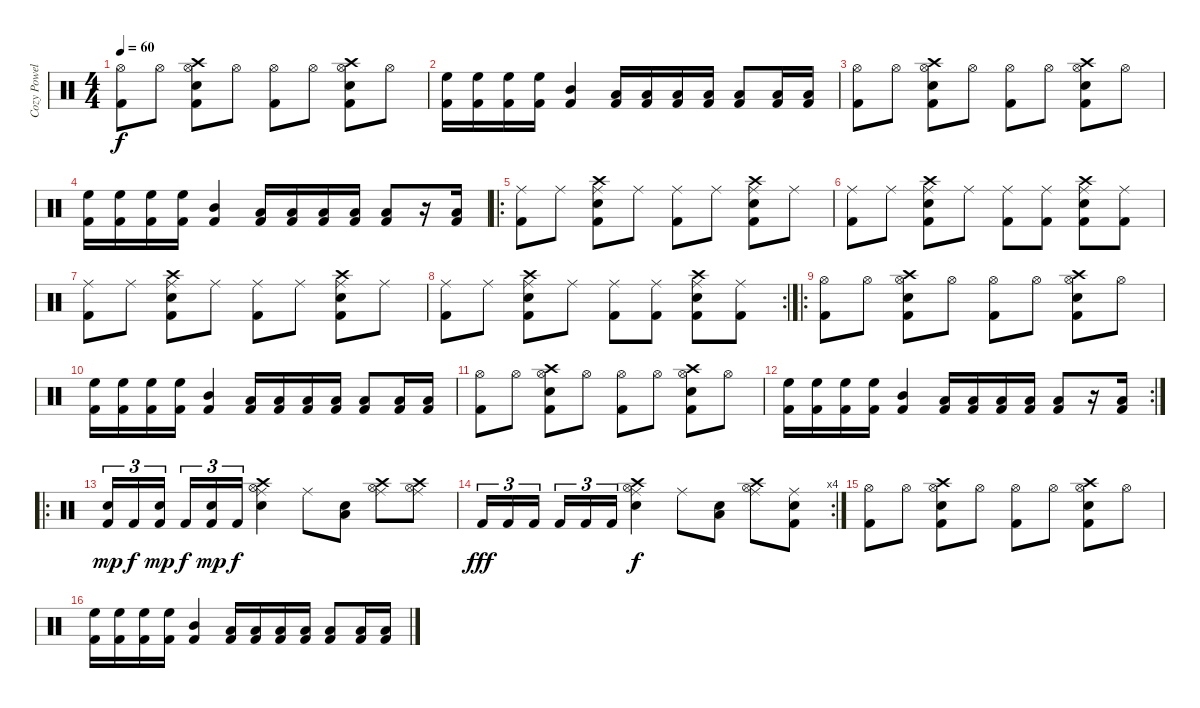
\track ("Cozy Powell (Drums)" "Cozy Powel") {instrument percussion}
\staff {score}
\articulation defaults
\ts (4 4)
\tempo 60
\clef neutral
\ks c
("Hi-Hat (open)" "Kick (hit) 2").8{dy f} "Hi-Hat (open)".8 ("Crash high (hit)" "Hi-Hat (open)" "Snare (hit) 2" "Kick (hit) 2").8 "Hi-Hat (open)".8 ("Hi-Hat (open)" "Kick (hit) 2").8 "Hi-Hat (open)".8 ("Crash high (hit)" "Hi-Hat (open)" "Snare (hit) 2" "Kick (hit) 2").8 "Hi-Hat (open)".8 |
("Kick (hit) 2" "High Floor Tom (hit)").16 ("Kick (hit) 2" "High Floor Tom (hit)").16 ("Kick (hit) 2" "High Floor Tom (hit)").16 ("Kick (hit) 2" "High Floor Tom (hit)").16 ("Kick (hit) 2" "Mid Tom (hit)").4 ("Kick (hit) 2" "Low Tom (hit)").16 ("Kick (hit) 2" "Low Tom (hit)").16 ("Kick (hit) 2" "Low Tom (hit)").16 ("Kick (hit) 2" "Low Tom (hit)").16 ("Kick (hit) 2" "Low Floor Tom (hit)").8 ("Kick (hit) 2" "Low Tom (hit)").16 ("Kick (hit) 2" "Low Tom (hit)").16 |
("Hi-Hat (open)" "Kick (hit) 2").8 "Hi-Hat (open)".8 ("Crash high (hit)" "Hi-Hat (open)" "Snare (hit) 2" "Kick (hit) 2").8 "Hi-Hat (open)".8 ("Hi-Hat (open)" "Kick (hit) 2").8 "Hi-Hat (open)".8 ("Crash high (hit)" "Hi-Hat (open)" "Snare (hit) 2" "Kick (hit) 2").8 "Hi-Hat (open)".8 |
("Kick (hit) 2" "High Floor Tom (hit)").16 ("Kick (hit) 2" "High Floor Tom (hit)").16 ("Kick (hit) 2" "High Floor Tom (hit)").16 ("Kick (hit) 2" "High Floor Tom (hit)").16 ("Kick (hit) 2" "Mid Tom (hit)").4 ("Kick (hit) 2" "Low Tom (hit)").16 ("Kick (hit) 2" "Low Tom (hit)").16 ("Kick (hit) 2" "Low Tom (hit)").16 ("Kick (hit) 2" "Low Tom (hit)").16 ("Kick (hit) 2" "Low Floor Tom (hit)").8 r.16 ("Kick (hit) 2" "Low Tom (hit)").16 |
\ro
("Ride (middle)" "Kick (hit) 2").8 "Ride (middle)".8 ("Crash high (hit)" "Ride (middle)" "Snare (hit) 2" "Kick (hit) 2").8 "Ride (middle)".8 ("Ride (middle)" "Kick (hit) 2").8 "Ride (middle)".8 ("Crash high (hit)" "Ride (middle)" "Snare (hit) 2" "Kick (hit) 2").8 "Ride (middle)".8 |
("Ride (middle)" "Kick (hit) 2").8 "Ride (middle)".8 ("Crash high (hit)" "Ride (middle)" "Snare (hit) 2" "Kick (hit) 2").8 "Ride (middle)".8 ("Ride (middle)" "Kick (hit) 2").8 ("Ride (middle)" "Kick (hit) 2").8 ("Crash high (hit)" "Ride (middle)" "Snare (hit) 2" "Kick (hit) 2").8 ("Ride (middle)" "Kick (hit) 2").8 |
("Ride (middle)" "Kick (hit) 2").8 "Ride (middle)".8 ("Crash high (hit)" "Ride (middle)" "Snare (hit) 2" "Kick (hit) 2").8 "Ride (middle)".8 ("Ride (middle)" "Kick (hit) 2").8 "Ride (middle)".8 ("Crash high (hit)" "Ride (middle)" "Snare (hit) 2" "Kick (hit) 2").8 "Ride (middle)".8 |
\rc 2
("Ride (middle)" "Kick (hit) 2").8 "Ride (middle)".8 ("Crash high (hit)" "Ride (middle)" "Snare (hit) 2" "Kick (hit) 2").8 "Ride (middle)".8 ("Ride (middle)" "Kick (hit) 2").8 ("Ride (middle)" "Kick (hit) 2").8 ("Crash high (hit)" "Ride (middle)" "Snare (hit) 2" "Kick (hit) 2").8 ("Ride (middle)" "Kick (hit) 2").8 |
\ro
("Hi-Hat (open)" "Kick (hit) 2").8 "Hi-Hat (open)".8 ("Crash high (hit)" "Hi-Hat (open)" "Snare (hit) 2" "Kick (hit) 2").8 "Hi-Hat (open)".8 ("Hi-Hat (open)" "Kick (hit) 2").8 "Hi-Hat (open)".8 ("Crash high (hit)" "Hi-Hat (open)" "Snare (hit) 2" "Kick (hit) 2").8 "Hi-Hat (open)".8 |
("Kick (hit) 2" "High Floor Tom (hit)").16 ("Kick (hit) 2" "High Floor Tom (hit)").16 ("Kick (hit) 2" "High Floor Tom (hit)").16 ("Kick (hit) 2" "High Floor Tom (hit)").16 ("Kick (hit) 2" "Mid Tom (hit)").4 ("Kick (hit) 2" "Low Tom (hit)").16 ("Kick (hit) 2" "Low Tom (hit)").16 ("Kick (hit) 2" "Low Tom (hit)").16 ("Kick (hit) 2" "Low Tom (hit)").16 ("Kick (hit) 2" "Low Floor Tom (hit)").8 ("Kick (hit) 2" "Low Tom (hit)").16 ("Kick (hit) 2" "Low Tom (hit)").16 |
("Hi-Hat (open)" "Kick (hit) 2").8 "Hi-Hat (open)".8 ("Crash high (hit)" "Hi-Hat (open)" "Snare (hit) 2" "Kick (hit) 2").8 "Hi-Hat (open)".8 ("Hi-Hat (open)" "Kick (hit) 2").8 "Hi-Hat (open)".8 ("Crash high (hit)" "Hi-Hat (open)" "Snare (hit) 2" "Kick (hit) 2").8 "Hi-Hat (open)".8 |
\rc 2
("Kick (hit) 2" "High Floor Tom (hit)").16 ("Kick (hit) 2" "High Floor Tom (hit)").16 ("Kick (hit) 2" "High Floor Tom (hit)").16 ("Kick (hit) 2" "High Floor Tom (hit)").16 ("Kick (hit) 2" "Mid Tom (hit)").4 ("Kick (hit) 2" "Low Tom (hit)").16 ("Kick (hit) 2" "Low Tom (hit)").16 ("Kick (hit) 2" "Low Tom (hit)").16 ("Kick (hit) 2" "Low Tom (hit)").16 ("Kick (hit) 2" "Low Floor Tom (hit)").8 r.16 ("Kick (hit) 2" "Low Tom (hit)").16 |
\ro
("Kick (hit) 2" "Snare (hit) 2").16{tu (3 2) dy mp} "Kick (hit) 2".16{tu (3 2) dy f} ("Kick (hit) 2" "Snare (hit) 2").16{tu (3 2) dy mp beam splitsecondary} "Kick (hit) 2".16{tu (3 2) dy f} ("Kick (hit) 2" "Snare (hit) 2").16{tu (3 2) dy mp} "Kick (hit) 2".16{tu (3 2) dy f} ("Hi-Hat (open)" "Snare (hit) 2" "Crash high (hit)" "Ride (middle)").4 "Ride (middle)".8 ("Snare (hit) 2" "Low Tom (hit)").8 ("Crash high (hit)" "Hi-Hat (open)" "Ride (middle)").8 ("Crash high (hit)" "Hi-Hat (open)" "Ride (middle)").8 |
\rc 4 "Kick (hit) 2".16{tu (3 2) dy fff} "Kick (hit) 2".16{tu (3 2)} "Kick (hit) 2".16{tu (3 2) beam splitsecondary} "Kick (hit) 2".16{tu (3 2)} "Kick (hit) 2".16{tu (3 2)} "Kick (hit) 2".16{tu (3 2)}
("Hi-Hat (open)" "Snare (hit) 2" "Crash high (hit)" "Ride (middle)").4{dy f} "Ride (middle)".8 ("Snare (hit) 2" "Low Tom (hit)").8 ("Crash high (hit)" "Hi-Hat (open)" "Ride (middle)").8 ("Kick (hit) 2" "Snare (hit) 2" "Ride (middle)").8 |
("Hi-Hat (open)" "Kick (hit) 2").8 "Hi-Hat (open)".8 ("Crash high (hit)" "Hi-Hat (open)" "Snare (hit) 2" "Kick (hit) 2").8 "Hi-Hat (open)".8 ("Hi-Hat (open)" "Kick (hit) 2").8 "Hi-Hat (open)".8 ("Crash high (hit)" "Hi-Hat (open)" "Snare (hit) 2" "Kick (hit) 2").8 "Hi-Hat (open)".8 |
("Kick (hit) 2" "High Floor Tom (hit)").16 ("Kick (hit) 2" "High Floor Tom (hit)").16 ("Kick (hit) 2" "High Floor Tom (hit)").16 ("Kick (hit) 2" "High Floor Tom (hit)").16 ("Kick (hit) 2" "Mid Tom (hit)").4 ("Kick (hit) 2" "Low Tom (hit)").16 ("Kick (hit) 2" "Low Tom (hit)").16 ("Kick (hit) 2" "Low Tom (hit)").16 ("Kick (hit) 2" "Low Tom (hit)").16 ("Kick (hit) 2" "Low Floor Tom (hit)").8 ("Kick (hit) 2" "Low Tom (hit)").16 ("Kick (hit) 2" "Low Tom (hit)").16
